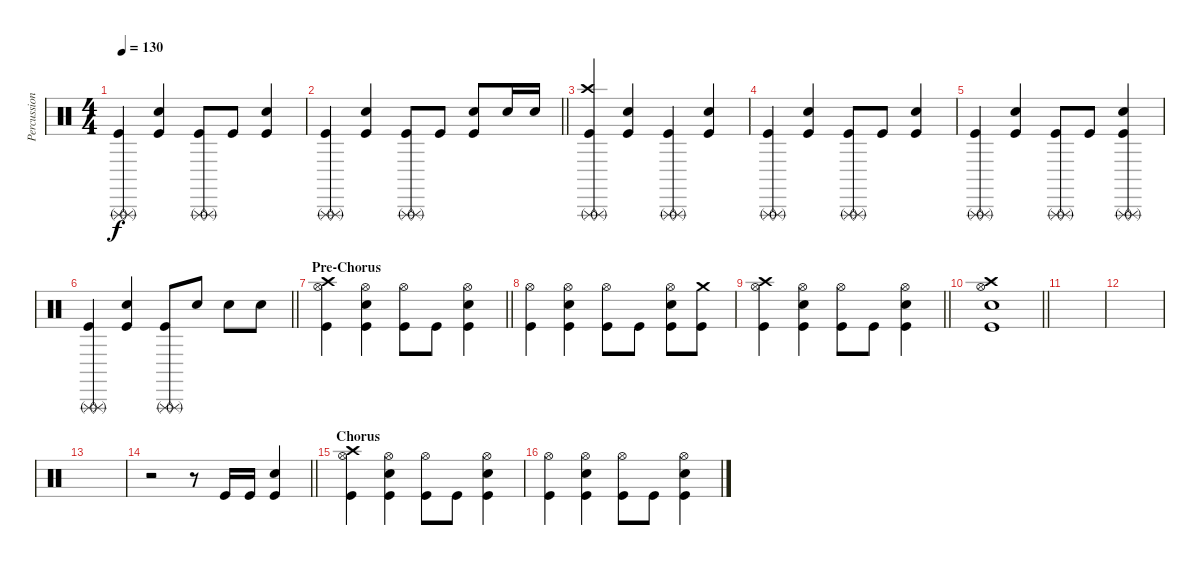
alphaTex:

\track ("Percussion" "Percussion") {instrument percussion}
\staff {score}
\articulation defaults
\ts (4 4)
\tempo 130
\clef neutral
\ks c
("Triangle (rnute)" "Triangle (rnute)" "Kick (hit)").4{dy f} ("Snare (hit) 2" "Kick (hit)").4 ("Triangle (rnute)" "Triangle (rnute)" "Kick (hit)").8 "Kick (hit)".8 ("Snare (hit) 2" "Kick (hit)").4 |
\barLineRight lightlight
("Triangle (rnute)" "Triangle (rnute)" "Kick (hit)").4 ("Snare (hit) 2" "Kick (hit)").4 ("Triangle (rnute)" "Triangle (rnute)" "Kick (hit)").8 "Kick (hit)".8 ("Snare (hit) 2" "Kick (hit)").8 "Snare (hit) 2".16 "Snare (hit) 2".16 |
("Crash high (hit)" "Triangle (rnute)" "Triangle (rnute)" "Kick (hit)").4 ("Snare (hit) 2" "Kick (hit)").4 ("Triangle (rnute)" "Triangle (rnute)" "Kick (hit)").4 ("Snare (hit) 2" "Kick (hit)").4 |
("Triangle (rnute)" "Triangle (rnute)" "Kick (hit)").4 ("Snare (hit) 2" "Kick (hit)").4 ("Triangle (rnute)" "Triangle (rnute)" "Kick (hit)").8 "Kick (hit)".8 ("Snare (hit) 2" "Kick (hit)").4 |
("Triangle (rnute)" "Triangle (rnute)" "Kick (hit)").4 ("Snare (hit) 2" "Kick (hit)").4 ("Triangle (rnute)" "Triangle (rnute)" "Kick (hit)").8 "Kick (hit)".8 ("Triangle (rnute)" "Triangle (rnute)" "Snare (hit) 2" "Kick (hit)").4 |
\barLineRight lightlight
("Triangle (rnute)" "Triangle (rnute)" "Kick (hit)").4 ("Snare (hit) 2" "Kick (hit)").4 ("Triangle (rnute)" "Triangle (rnute)" "Kick (hit)").8 "Snare (hit) 2".8 "Snare (hit) 2".8 "Snare (hit) 2".8 |
\section ("" "Pre-Chorus")
\barLineRight lightlight
("Crash high (hit)" "Hi-Hat (open)" "Kick (hit)").4 ("Hi-Hat (open)" "Snare (hit) 2" "Kick (hit)").4 ("Hi-Hat (open)" "Kick (hit)").8 "Kick (hit)".8 ("Hi-Hat (open)" "Snare (hit) 2" "Kick (hit)").4 |
("Hi-Hat (open)" "Kick (hit)").4 ("Hi-Hat (open)" "Snare (hit) 2" "Kick (hit)").4 ("Hi-Hat (open)" "Kick (hit)").8 "Kick (hit)".8 ("Hi-Hat (open)" "Snare (hit) 2" "Kick (hit)").8 ("Crash medium (hit)" "Kick (hit)").8 |
\barLineRight lightlight
("Crash high (hit)" "Hi-Hat (open)" "Kick (hit)").4 ("Hi-Hat (open)" "Snare (hit) 2" "Kick (hit)").4 ("Hi-Hat (open)" "Kick (hit)").8 "Kick (hit)".8 ("Hi-Hat (open)" "Snare (hit) 2" "Kick (hit)").4 |
\barLineRight lightlight
("Crash high (hit)" "Hi-Hat (open)" "Snare (hit) 2" "Kick (hit)").1 |
|
|
|
\barLineRight lightlight
r.2 r.8 "Kick (hit)".16 "Kick (hit)".16 ("Snare (hit) 2" "Kick (hit)").4 |
\section ("" "Chorus")
("Crash high (hit)" "Hi-Hat (open)" "Kick (hit)").4 ("Hi-Hat (open)" "Snare (hit) 2" "Kick (hit)").4 ("Hi-Hat (open)" "Kick (hit)").8 "Kick (hit)".8 ("Hi-Hat (open)" "Snare (hit) 2" "Kick (hit)").4 |
("Hi-Hat (open)" "Kick (hit)").4 ("Hi-Hat (open)" "Snare (hit) 2" "Kick (hit)").4 ("Hi-Hat (open)" "Kick (hit)").8 "Kick (hit)".8 ("Hi-Hat (open)" "Snare (hit) 2" "Kick (hit)").4
